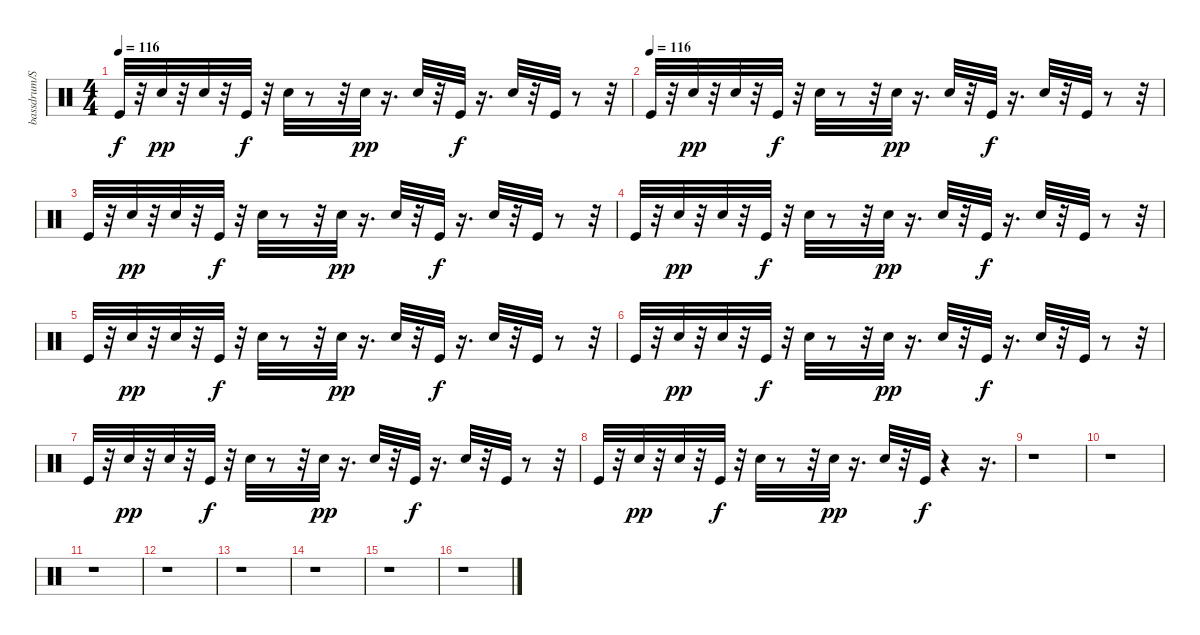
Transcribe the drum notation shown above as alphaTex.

\track ("bassdrum/SD" "bassdrum/S") {instrument percussion}
\staff {score}
\articulation defaults
\ts (4 4)
\tempo 116
\clef neutral
\ks c "Kick (hit)".32{dy f}
r.32 "Snare (hit) 2".32{dy pp} r.32 "Snare (hit) 2".32 r.32 "Kick (hit)".32{dy f} r.32 "Electric Snare (hit)".32 r.8 r.32 "Snare (hit) 2".32{dy pp} r.16{d} "Snare (hit) 2".32 r.32 "Kick (hit)".32{dy f} r.16{d} "Electric Snare (hit)".32 r.32 "Kick (hit)".32 r.8 r.32 |
\tempo (116)
"Kick (hit)".32 r.32 "Snare (hit) 2".32{dy pp} r.32 "Snare (hit) 2".32 r.32 "Kick (hit)".32{dy f} r.32 "Electric Snare (hit)".32 r.8 r.32 "Snare (hit) 2".32{dy pp} r.16{d} "Snare (hit) 2".32 r.32 "Kick (hit)".32{dy f} r.16{d} "Electric Snare (hit)".32 r.32 "Kick (hit)".32 r.8 r.32 |
"Kick (hit)".32 r.32 "Snare (hit) 2".32{dy pp} r.32 "Snare (hit) 2".32 r.32 "Kick (hit)".32{dy f} r.32 "Electric Snare (hit)".32 r.8 r.32 "Snare (hit) 2".32{dy pp} r.16{d} "Snare (hit) 2".32 r.32 "Kick (hit)".32{dy f} r.16{d} "Electric Snare (hit)".32 r.32 "Kick (hit)".32 r.8 r.32 |
"Kick (hit)".32 r.32 "Snare (hit) 2".32{dy pp} r.32 "Snare (hit) 2".32 r.32 "Kick (hit)".32{dy f} r.32 "Electric Snare (hit)".32 r.8 r.32 "Snare (hit) 2".32{dy pp} r.16{d} "Snare (hit) 2".32 r.32 "Kick (hit)".32{dy f} r.16{d} "Electric Snare (hit)".32 r.32 "Kick (hit)".32 r.8 r.32 |
"Kick (hit)".32 r.32 "Snare (hit) 2".32{dy pp} r.32 "Snare (hit) 2".32 r.32 "Kick (hit)".32{dy f} r.32 "Electric Snare (hit)".32 r.8 r.32 "Snare (hit) 2".32{dy pp} r.16{d} "Snare (hit) 2".32 r.32 "Kick (hit)".32{dy f} r.16{d} "Electric Snare (hit)".32 r.32 "Kick (hit)".32 r.8 r.32 |
"Kick (hit)".32 r.32 "Snare (hit) 2".32{dy pp} r.32 "Snare (hit) 2".32 r.32 "Kick (hit)".32{dy f} r.32 "Electric Snare (hit)".32 r.8 r.32 "Snare (hit) 2".32{dy pp} r.16{d} "Snare (hit) 2".32 r.32 "Kick (hit)".32{dy f} r.16{d} "Electric Snare (hit)".32 r.32 "Kick (hit)".32 r.8 r.32 |
"Kick (hit)".32 r.32 "Snare (hit) 2".32{dy pp} r.32 "Snare (hit) 2".32 r.32 "Kick (hit)".32{dy f} r.32 "Electric Snare (hit)".32 r.8 r.32 "Snare (hit) 2".32{dy pp} r.16{d} "Snare (hit) 2".32 r.32 "Kick (hit)".32{dy f} r.16{d} "Electric Snare (hit)".32 r.32 "Kick (hit)".32 r.8 r.32 |
"Kick (hit)".32 r.32 "Snare (hit) 2".32{dy pp} r.32 "Snare (hit) 2".32 r.32 "Kick (hit)".32{dy f} r.32 "Electric Snare (hit)".32 r.8 r.32 "Snare (hit) 2".32{dy pp} r.16{d} "Snare (hit) 2".32 r.32 "Kick (hit)".32{dy f} r.4 r.16{d} |
r.1 |
r.1 |
r.1 |
r.1 |
r.1 |
r.1 |
r.1 |
r.1
